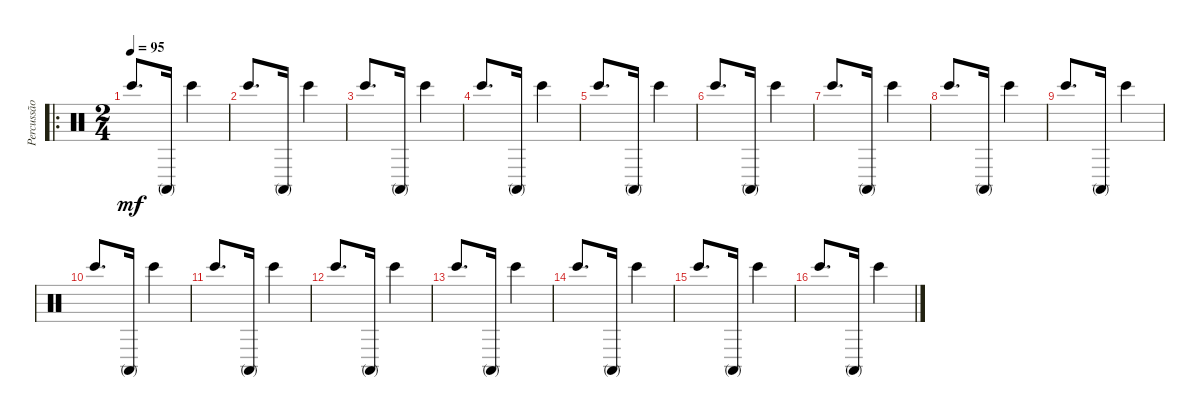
\track ("Percussão" "Percussão") {instrument percussion}
\staff {score}
\articulation defaults
\ro
\ts (2 4)
\tempo 95
\clef neutral
\ks c "Bongo High (hit)".8{d dy mf} "Conga high (mute)".16 "Bongo High (hit)".4
|
"Bongo High (hit)".8{d} "Conga high (mute)".16 "Bongo High (hit)".4 |
"Bongo High (hit)".8{d} "Conga high (mute)".16 "Bongo High (hit)".4 |
"Bongo High (hit)".8{d} "Conga high (mute)".16 "Bongo High (hit)".4 |
"Bongo High (hit)".8{d} "Conga high (mute)".16 "Bongo High (hit)".4 |
"Bongo High (hit)".8{d} "Conga high (mute)".16 "Bongo High (hit)".4 |
"Bongo High (hit)".8{d} "Conga high (mute)".16 "Bongo High (hit)".4 |
"Bongo High (hit)".8{d} "Conga high (mute)".16 "Bongo High (hit)".4 |
"Bongo High (hit)".8{d} "Conga high (mute)".16 "Bongo High (hit)".4 |
"Bongo High (hit)".8{d} "Conga high (mute)".16 "Bongo High (hit)".4 |
"Bongo High (hit)".8{d} "Conga high (mute)".16 "Bongo High (hit)".4 |
"Bongo High (hit)".8{d} "Conga high (mute)".16 "Bongo High (hit)".4 |
"Bongo High (hit)".8{d} "Conga high (mute)".16 "Bongo High (hit)".4 |
"Bongo High (hit)".8{d} "Conga high (mute)".16 "Bongo High (hit)".4 |
"Bongo High (hit)".8{d} "Conga high (mute)".16 "Bongo High (hit)".4 |
"Bongo High (hit)".8{d} "Conga high (mute)".16 "Bongo High (hit)".4
